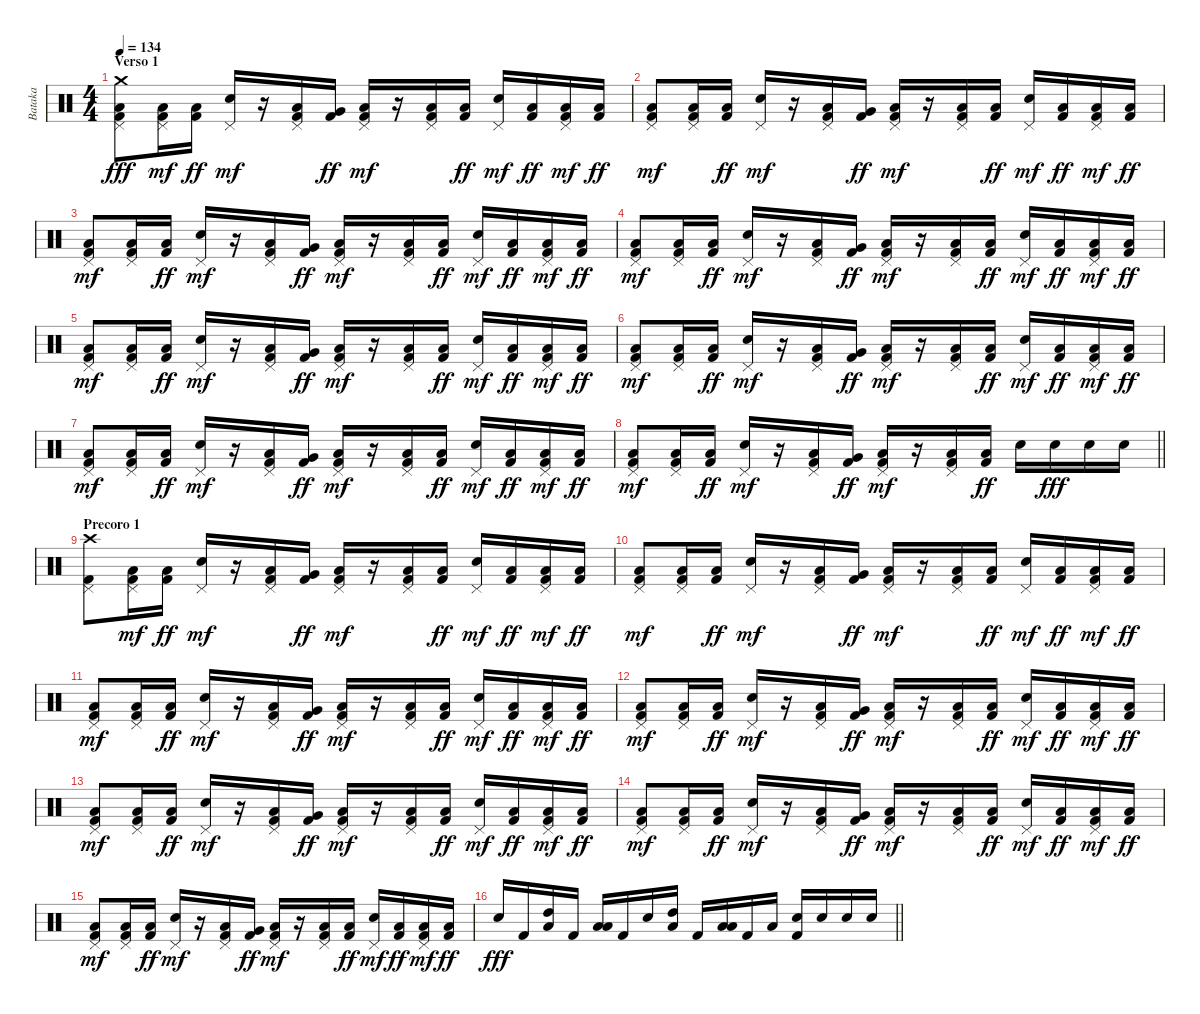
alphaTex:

\track ("Bataka" "Bataka") {instrument percussion}
\staff {score}
\articulation defaults
\ts (4 4)
\section ("" "Verso 1")
\tempo 134
\clef neutral
\ks c
("Kick (hit) 2" "Low Floor Tom (hit)" "Pedal Hi-Hat (hit)" "Crash medium (hit)").8{dy fff} ("Kick (hit) 2" "Low Floor Tom (hit)" "Pedal Hi-Hat (hit)").16{dy mf} ("Kick (hit) 2" "Low Tom (hit)").16{dy ff} ("Snare (hit) 2" "Pedal Hi-Hat (hit)").16{dy mf} r.16 ("Kick (hit) 2" "Low Tom (hit)" "Pedal Hi-Hat (hit)").16 ("Kick (hit) 2" "Very Low Tom (hit)").16{dy ff} ("Kick (hit) 2" "Low Floor Tom (hit)" "Pedal Hi-Hat (hit)").16{dy mf} r.16 ("Kick (hit) 2" "Low Floor Tom (hit)" "Pedal Hi-Hat (hit)").16 ("Kick (hit) 2" "Low Tom (hit)").16{dy ff} ("Snare (hit) 2" "Pedal Hi-Hat (hit)").16{dy mf} ("Kick (hit) 2" "Low Tom (hit)").16{dy ff} ("Kick (hit) 2" "Low Tom (hit)" "Pedal Hi-Hat (hit)").16{dy mf} ("Kick (hit) 2" "Low Floor Tom (hit)").16{dy ff} |
("Kick (hit) 2" "Low Floor Tom (hit)" "Pedal Hi-Hat (hit)").8{dy mf} ("Kick (hit) 2" "Low Floor Tom (hit)" "Pedal Hi-Hat (hit)").16 ("Kick (hit) 2" "Low Tom (hit)").16{dy ff} ("Snare (hit) 2" "Pedal Hi-Hat (hit)").16{dy mf} r.16 ("Kick (hit) 2" "Low Tom (hit)" "Pedal Hi-Hat (hit)").16 ("Kick (hit) 2" "Very Low Tom (hit)").16{dy ff} ("Kick (hit) 2" "Low Floor Tom (hit)" "Pedal Hi-Hat (hit)").16{dy mf} r.16 ("Kick (hit) 2" "Low Floor Tom (hit)" "Pedal Hi-Hat (hit)").16 ("Kick (hit) 2" "Low Tom (hit)").16{dy ff} ("Snare (hit) 2" "Pedal Hi-Hat (hit)").16{dy mf} ("Kick (hit) 2" "Low Tom (hit)").16{dy ff} ("Kick (hit) 2" "Low Tom (hit)" "Pedal Hi-Hat (hit)").16{dy mf} ("Kick (hit) 2" "Low Floor Tom (hit)").16{dy ff} |
("Kick (hit) 2" "Low Floor Tom (hit)" "Pedal Hi-Hat (hit)").8{dy mf} ("Kick (hit) 2" "Low Floor Tom (hit)" "Pedal Hi-Hat (hit)").16 ("Kick (hit) 2" "Low Tom (hit)").16{dy ff} ("Snare (hit) 2" "Pedal Hi-Hat (hit)").16{dy mf} r.16 ("Kick (hit) 2" "Low Tom (hit)" "Pedal Hi-Hat (hit)").16 ("Kick (hit) 2" "Very Low Tom (hit)").16{dy ff} ("Kick (hit) 2" "Low Floor Tom (hit)" "Pedal Hi-Hat (hit)").16{dy mf} r.16 ("Kick (hit) 2" "Low Floor Tom (hit)" "Pedal Hi-Hat (hit)").16 ("Kick (hit) 2" "Low Tom (hit)").16{dy ff} ("Snare (hit) 2" "Pedal Hi-Hat (hit)").16{dy mf} ("Kick (hit) 2" "Low Tom (hit)").16{dy ff} ("Kick (hit) 2" "Low Tom (hit)" "Pedal Hi-Hat (hit)").16{dy mf} ("Kick (hit) 2" "Low Floor Tom (hit)").16{dy ff} |
("Kick (hit) 2" "Low Floor Tom (hit)" "Pedal Hi-Hat (hit)").8{dy mf} ("Kick (hit) 2" "Low Floor Tom (hit)" "Pedal Hi-Hat (hit)").16 ("Kick (hit) 2" "Low Tom (hit)").16{dy ff} ("Snare (hit) 2" "Pedal Hi-Hat (hit)").16{dy mf} r.16 ("Kick (hit) 2" "Low Tom (hit)" "Pedal Hi-Hat (hit)").16 ("Kick (hit) 2" "Very Low Tom (hit)").16{dy ff} ("Kick (hit) 2" "Low Floor Tom (hit)" "Pedal Hi-Hat (hit)").16{dy mf} r.16 ("Kick (hit) 2" "Low Floor Tom (hit)" "Pedal Hi-Hat (hit)").16 ("Kick (hit) 2" "Low Tom (hit)").16{dy ff} ("Snare (hit) 2" "Pedal Hi-Hat (hit)").16{dy mf} ("Kick (hit) 2" "Low Tom (hit)").16{dy ff} ("Kick (hit) 2" "Low Tom (hit)" "Pedal Hi-Hat (hit)").16{dy mf} ("Kick (hit) 2" "Low Floor Tom (hit)").16{dy ff} |
("Kick (hit) 2" "Low Floor Tom (hit)" "Pedal Hi-Hat (hit)").8{dy mf} ("Kick (hit) 2" "Low Floor Tom (hit)" "Pedal Hi-Hat (hit)").16 ("Kick (hit) 2" "Low Tom (hit)").16{dy ff} ("Snare (hit) 2" "Pedal Hi-Hat (hit)").16{dy mf} r.16 ("Kick (hit) 2" "Low Tom (hit)" "Pedal Hi-Hat (hit)").16 ("Kick (hit) 2" "Very Low Tom (hit)").16{dy ff} ("Kick (hit) 2" "Low Floor Tom (hit)" "Pedal Hi-Hat (hit)").16{dy mf} r.16 ("Kick (hit) 2" "Low Floor Tom (hit)" "Pedal Hi-Hat (hit)").16 ("Kick (hit) 2" "Low Tom (hit)").16{dy ff} ("Snare (hit) 2" "Pedal Hi-Hat (hit)").16{dy mf} ("Kick (hit) 2" "Low Tom (hit)").16{dy ff} ("Kick (hit) 2" "Low Tom (hit)" "Pedal Hi-Hat (hit)").16{dy mf} ("Kick (hit) 2" "Low Floor Tom (hit)").16{dy ff} |
("Kick (hit) 2" "Low Floor Tom (hit)" "Pedal Hi-Hat (hit)").8{dy mf} ("Kick (hit) 2" "Low Floor Tom (hit)" "Pedal Hi-Hat (hit)").16 ("Kick (hit) 2" "Low Tom (hit)").16{dy ff} ("Snare (hit) 2" "Pedal Hi-Hat (hit)").16{dy mf} r.16 ("Kick (hit) 2" "Low Tom (hit)" "Pedal Hi-Hat (hit)").16 ("Kick (hit) 2" "Very Low Tom (hit)").16{dy ff} ("Kick (hit) 2" "Low Floor Tom (hit)" "Pedal Hi-Hat (hit)").16{dy mf} r.16 ("Kick (hit) 2" "Low Floor Tom (hit)" "Pedal Hi-Hat (hit)").16 ("Kick (hit) 2" "Low Tom (hit)").16{dy ff} ("Snare (hit) 2" "Pedal Hi-Hat (hit)").16{dy mf} ("Kick (hit) 2" "Low Tom (hit)").16{dy ff} ("Kick (hit) 2" "Low Tom (hit)" "Pedal Hi-Hat (hit)").16{dy mf} ("Kick (hit) 2" "Low Floor Tom (hit)").16{dy ff} |
("Kick (hit) 2" "Low Floor Tom (hit)" "Pedal Hi-Hat (hit)").8{dy mf} ("Kick (hit) 2" "Low Floor Tom (hit)" "Pedal Hi-Hat (hit)").16 ("Kick (hit) 2" "Low Tom (hit)").16{dy ff} ("Snare (hit) 2" "Pedal Hi-Hat (hit)").16{dy mf} r.16 ("Kick (hit) 2" "Low Tom (hit)" "Pedal Hi-Hat (hit)").16 ("Kick (hit) 2" "Very Low Tom (hit)").16{dy ff} ("Kick (hit) 2" "Low Floor Tom (hit)" "Pedal Hi-Hat (hit)").16{dy mf} r.16 ("Kick (hit) 2" "Low Floor Tom (hit)" "Pedal Hi-Hat (hit)").16 ("Kick (hit) 2" "Low Tom (hit)").16{dy ff} ("Snare (hit) 2" "Pedal Hi-Hat (hit)").16{dy mf} ("Kick (hit) 2" "Low Tom (hit)").16{dy ff} ("Kick (hit) 2" "Low Tom (hit)" "Pedal Hi-Hat (hit)").16{dy mf} ("Kick (hit) 2" "Low Floor Tom (hit)").16{dy ff} |
\barLineRight lightlight
("Kick (hit) 2" "Low Floor Tom (hit)" "Pedal Hi-Hat (hit)").8{dy mf} ("Kick (hit) 2" "Low Floor Tom (hit)" "Pedal Hi-Hat (hit)").16 ("Kick (hit) 2" "Low Tom (hit)").16{dy ff} ("Snare (hit) 2" "Pedal Hi-Hat (hit)").16{dy mf} r.16 ("Kick (hit) 2" "Low Tom (hit)" "Pedal Hi-Hat (hit)").16 ("Kick (hit) 2" "Very Low Tom (hit)").16{dy ff} ("Kick (hit) 2" "Low Floor Tom (hit)" "Pedal Hi-Hat (hit)").16{dy mf} r.16 ("Kick (hit) 2" "Low Floor Tom (hit)" "Pedal Hi-Hat (hit)").16 ("Kick (hit) 2" "Low Tom (hit)").16{dy ff} "Snare (hit) 2".16 "Snare (hit) 2".16{dy fff} "Snare (hit) 2".16 "Snare (hit) 2".16 |
\section ("" "Precoro 1")
("Kick (hit) 2" "Pedal Hi-Hat (hit)" "Crash high (hit)").8 ("Kick (hit) 2" "Low Floor Tom (hit)" "Pedal Hi-Hat (hit)").16{dy mf} ("Kick (hit) 2" "Low Tom (hit)").16{dy ff} ("Snare (hit) 2" "Pedal Hi-Hat (hit)").16{dy mf} r.16 ("Kick (hit) 2" "Low Tom (hit)" "Pedal Hi-Hat (hit)").16 ("Kick (hit) 2" "Very Low Tom (hit)").16{dy ff} ("Kick (hit) 2" "Low Floor Tom (hit)" "Pedal Hi-Hat (hit)").16{dy mf} r.16 ("Kick (hit) 2" "Low Floor Tom (hit)" "Pedal Hi-Hat (hit)").16 ("Kick (hit) 2" "Low Tom (hit)").16{dy ff} ("Snare (hit) 2" "Pedal Hi-Hat (hit)").16{dy mf} ("Kick (hit) 2" "Low Tom (hit)").16{dy ff} ("Kick (hit) 2" "Low Tom (hit)" "Pedal Hi-Hat (hit)").16{dy mf} ("Kick (hit) 2" "Low Floor Tom (hit)").16{dy ff} |
("Kick (hit) 2" "Low Floor Tom (hit)" "Pedal Hi-Hat (hit)").8{dy mf} ("Kick (hit) 2" "Low Floor Tom (hit)" "Pedal Hi-Hat (hit)").16 ("Kick (hit) 2" "Low Tom (hit)").16{dy ff} ("Snare (hit) 2" "Pedal Hi-Hat (hit)").16{dy mf} r.16 ("Kick (hit) 2" "Low Tom (hit)" "Pedal Hi-Hat (hit)").16 ("Kick (hit) 2" "Very Low Tom (hit)").16{dy ff} ("Kick (hit) 2" "Low Floor Tom (hit)" "Pedal Hi-Hat (hit)").16{dy mf} r.16 ("Kick (hit) 2" "Low Floor Tom (hit)" "Pedal Hi-Hat (hit)").16 ("Kick (hit) 2" "Low Tom (hit)").16{dy ff} ("Snare (hit) 2" "Pedal Hi-Hat (hit)").16{dy mf} ("Kick (hit) 2" "Low Tom (hit)").16{dy ff} ("Kick (hit) 2" "Low Tom (hit)" "Pedal Hi-Hat (hit)").16{dy mf} ("Kick (hit) 2" "Low Floor Tom (hit)").16{dy ff} |
("Kick (hit) 2" "Low Floor Tom (hit)" "Pedal Hi-Hat (hit)").8{dy mf} ("Kick (hit) 2" "Low Floor Tom (hit)" "Pedal Hi-Hat (hit)").16 ("Kick (hit) 2" "Low Tom (hit)").16{dy ff} ("Snare (hit) 2" "Pedal Hi-Hat (hit)").16{dy mf} r.16 ("Kick (hit) 2" "Low Tom (hit)" "Pedal Hi-Hat (hit)").16 ("Kick (hit) 2" "Very Low Tom (hit)").16{dy ff} ("Kick (hit) 2" "Low Floor Tom (hit)" "Pedal Hi-Hat (hit)").16{dy mf} r.16 ("Kick (hit) 2" "Low Floor Tom (hit)" "Pedal Hi-Hat (hit)").16 ("Kick (hit) 2" "Low Tom (hit)").16{dy ff} ("Snare (hit) 2" "Pedal Hi-Hat (hit)").16{dy mf} ("Kick (hit) 2" "Low Tom (hit)").16{dy ff} ("Kick (hit) 2" "Low Tom (hit)" "Pedal Hi-Hat (hit)").16{dy mf} ("Kick (hit) 2" "Low Floor Tom (hit)").16{dy ff} |
("Kick (hit) 2" "Low Floor Tom (hit)" "Pedal Hi-Hat (hit)").8{dy mf} ("Kick (hit) 2" "Low Floor Tom (hit)" "Pedal Hi-Hat (hit)").16 ("Kick (hit) 2" "Low Tom (hit)").16{dy ff} ("Snare (hit) 2" "Pedal Hi-Hat (hit)").16{dy mf} r.16 ("Kick (hit) 2" "Low Tom (hit)" "Pedal Hi-Hat (hit)").16 ("Kick (hit) 2" "Very Low Tom (hit)").16{dy ff} ("Kick (hit) 2" "Low Floor Tom (hit)" "Pedal Hi-Hat (hit)").16{dy mf} r.16 ("Kick (hit) 2" "Low Floor Tom (hit)" "Pedal Hi-Hat (hit)").16 ("Kick (hit) 2" "Low Tom (hit)").16{dy ff} ("Snare (hit) 2" "Pedal Hi-Hat (hit)").16{dy mf} ("Kick (hit) 2" "Low Tom (hit)").16{dy ff} ("Kick (hit) 2" "Low Tom (hit)" "Pedal Hi-Hat (hit)").16{dy mf} ("Kick (hit) 2" "Low Floor Tom (hit)").16{dy ff} |
("Kick (hit) 2" "Low Floor Tom (hit)" "Pedal Hi-Hat (hit)").8{dy mf} ("Kick (hit) 2" "Low Floor Tom (hit)" "Pedal Hi-Hat (hit)").16 ("Kick (hit) 2" "Low Tom (hit)").16{dy ff} ("Snare (hit) 2" "Pedal Hi-Hat (hit)").16{dy mf} r.16 ("Kick (hit) 2" "Low Tom (hit)" "Pedal Hi-Hat (hit)").16 ("Kick (hit) 2" "Very Low Tom (hit)").16{dy ff} ("Kick (hit) 2" "Low Floor Tom (hit)" "Pedal Hi-Hat (hit)").16{dy mf} r.16 ("Kick (hit) 2" "Low Floor Tom (hit)" "Pedal Hi-Hat (hit)").16 ("Kick (hit) 2" "Low Tom (hit)").16{dy ff} ("Snare (hit) 2" "Pedal Hi-Hat (hit)").16{dy mf} ("Kick (hit) 2" "Low Tom (hit)").16{dy ff} ("Kick (hit) 2" "Low Tom (hit)" "Pedal Hi-Hat (hit)").16{dy mf} ("Kick (hit) 2" "Low Floor Tom (hit)").16{dy ff} |
("Kick (hit) 2" "Low Floor Tom (hit)" "Pedal Hi-Hat (hit)").8{dy mf} ("Kick (hit) 2" "Low Floor Tom (hit)" "Pedal Hi-Hat (hit)").16 ("Kick (hit) 2" "Low Tom (hit)").16{dy ff} ("Snare (hit) 2" "Pedal Hi-Hat (hit)").16{dy mf} r.16 ("Kick (hit) 2" "Low Tom (hit)" "Pedal Hi-Hat (hit)").16 ("Kick (hit) 2" "Very Low Tom (hit)").16{dy ff} ("Kick (hit) 2" "Low Floor Tom (hit)" "Pedal Hi-Hat (hit)").16{dy mf} r.16 ("Kick (hit) 2" "Low Floor Tom (hit)" "Pedal Hi-Hat (hit)").16 ("Kick (hit) 2" "Low Tom (hit)").16{dy ff} ("Snare (hit) 2" "Pedal Hi-Hat (hit)").16{dy mf} ("Kick (hit) 2" "Low Tom (hit)").16{dy ff} ("Kick (hit) 2" "Low Tom (hit)" "Pedal Hi-Hat (hit)").16{dy mf} ("Kick (hit) 2" "Low Floor Tom (hit)").16{dy ff} |
("Kick (hit) 2" "Low Floor Tom (hit)" "Pedal Hi-Hat (hit)").8{dy mf} ("Kick (hit) 2" "Low Floor Tom (hit)" "Pedal Hi-Hat (hit)").16 ("Kick (hit) 2" "Low Tom (hit)").16{dy ff} ("Snare (hit) 2" "Pedal Hi-Hat (hit)").16{dy mf} r.16 ("Kick (hit) 2" "Low Tom (hit)" "Pedal Hi-Hat (hit)").16 ("Kick (hit) 2" "Very Low Tom (hit)").16{dy ff} ("Kick (hit) 2" "Low Floor Tom (hit)" "Pedal Hi-Hat (hit)").16{dy mf} r.16 ("Kick (hit) 2" "Low Floor Tom (hit)" "Pedal Hi-Hat (hit)").16 ("Kick (hit) 2" "Low Tom (hit)").16{dy ff} ("Snare (hit) 2" "Pedal Hi-Hat (hit)").16{dy mf} ("Kick (hit) 2" "Low Tom (hit)").16{dy ff} ("Kick (hit) 2" "Low Tom (hit)" "Pedal Hi-Hat (hit)").16{dy mf} ("Kick (hit) 2" "Low Floor Tom (hit)").16{dy ff} |
\barLineRight lightlight "Snare (hit) 2".16{dy fff} "Kick (hit) 2".16
("High Tom (hit)" "Low Floor Tom (hit)").16 "Kick (hit) 2".16 ("Low Floor Tom (hit)" "Low Tom (hit)").16 "Kick (hit) 2".16 "Snare (hit) 2".16 ("High Tom (hit)" "Low Floor Tom (hit)").16 "Kick (hit) 2".16 ("Low Tom (hit)" "Low Floor Tom (hit)").16 "Kick (hit) 2".16 "Low Floor Tom (hit)".16 ("Snare (hit) 2" "Kick (hit) 2").16 "Snare (hit) 2".16 "Snare (hit) 2".16 "Snare (hit) 2".16
